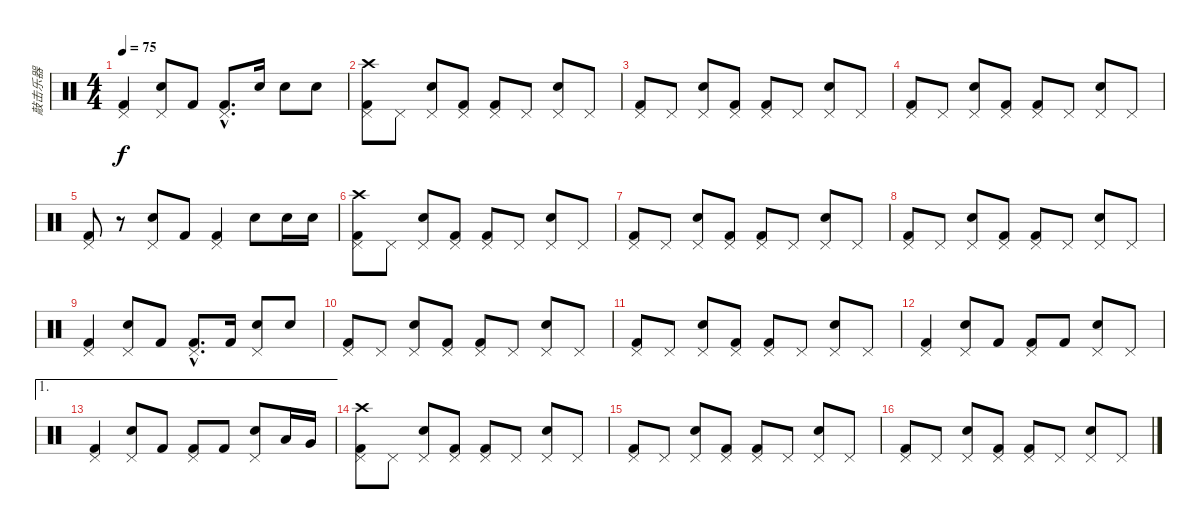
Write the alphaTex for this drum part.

\track ("敲击乐器" "敲击乐器") {instrument percussion}
\staff {score}
\articulation defaults
\ts (4 4)
\tempo 75
\clef neutral
\ks c
("Pedal Hi-Hat (hit)" "Kick (hit) 2").4{dy f} ("Pedal Hi-Hat (hit)" "Metronome (bell)").8 "Kick (hit) 2".8 ("Pedal Hi-Hat (hit)"{hac} "Kick (hit) 2"{hac}).8{d} "Metronome (bell)".16 "Metronome (bell)".8 "Metronome (bell)".8 |
("Crash high (hit)" "Pedal Hi-Hat (hit)" "Kick (hit) 2").8 "Pedal Hi-Hat (hit)".8 ("Pedal Hi-Hat (hit)" "Metronome (bell)").8 ("Pedal Hi-Hat (hit)" "Kick (hit) 2").8 ("Pedal Hi-Hat (hit)" "Kick (hit) 2").8 "Pedal Hi-Hat (hit)".8 ("Pedal Hi-Hat (hit)" "Metronome (bell)").8 "Pedal Hi-Hat (hit)".8 |
("Pedal Hi-Hat (hit)" "Kick (hit) 2").8 "Pedal Hi-Hat (hit)".8 ("Pedal Hi-Hat (hit)" "Metronome (bell)").8 ("Pedal Hi-Hat (hit)" "Kick (hit) 2").8 ("Pedal Hi-Hat (hit)" "Kick (hit) 2").8 "Pedal Hi-Hat (hit)".8 ("Pedal Hi-Hat (hit)" "Metronome (bell)").8 "Pedal Hi-Hat (hit)".8 |
("Pedal Hi-Hat (hit)" "Kick (hit) 2").8 "Pedal Hi-Hat (hit)".8 ("Pedal Hi-Hat (hit)" "Metronome (bell)").8 ("Pedal Hi-Hat (hit)" "Kick (hit) 2").8 ("Pedal Hi-Hat (hit)" "Kick (hit) 2").8 "Pedal Hi-Hat (hit)".8 ("Pedal Hi-Hat (hit)" "Metronome (bell)").8 "Pedal Hi-Hat (hit)".8 |
("Pedal Hi-Hat (hit)" "Kick (hit) 2").8 r.8 ("Pedal Hi-Hat (hit)" "Metronome (bell)").8 "Kick (hit) 2".8 ("Pedal Hi-Hat (hit)" "Kick (hit) 2").4 "Metronome (bell)".8 "Metronome (bell)".16 "Metronome (bell)".16 |
("Crash high (hit)" "Pedal Hi-Hat (hit)" "Kick (hit) 2").8 "Pedal Hi-Hat (hit)".8 ("Pedal Hi-Hat (hit)" "Metronome (bell)").8 ("Pedal Hi-Hat (hit)" "Kick (hit) 2").8 ("Pedal Hi-Hat (hit)" "Kick (hit) 2").8 "Pedal Hi-Hat (hit)".8 ("Pedal Hi-Hat (hit)" "Metronome (bell)").8 "Pedal Hi-Hat (hit)".8 |
("Pedal Hi-Hat (hit)" "Kick (hit) 2").8 "Pedal Hi-Hat (hit)".8 ("Pedal Hi-Hat (hit)" "Metronome (bell)").8 ("Pedal Hi-Hat (hit)" "Kick (hit) 2").8 ("Pedal Hi-Hat (hit)" "Kick (hit) 2").8 "Pedal Hi-Hat (hit)".8 ("Pedal Hi-Hat (hit)" "Metronome (bell)").8 "Pedal Hi-Hat (hit)".8 |
("Pedal Hi-Hat (hit)" "Kick (hit) 2").8 "Pedal Hi-Hat (hit)".8 ("Pedal Hi-Hat (hit)" "Metronome (bell)").8 ("Pedal Hi-Hat (hit)" "Kick (hit) 2").8 ("Pedal Hi-Hat (hit)" "Kick (hit) 2").8 "Pedal Hi-Hat (hit)".8 ("Pedal Hi-Hat (hit)" "Metronome (bell)").8 "Pedal Hi-Hat (hit)".8 |
("Pedal Hi-Hat (hit)" "Kick (hit) 2").4 ("Pedal Hi-Hat (hit)" "Metronome (bell)").8 "Kick (hit) 2".8 ("Pedal Hi-Hat (hit)"{hac} "Kick (hit) 2"{hac}).8{d} "Kick (hit) 2".16 ("Pedal Hi-Hat (hit)" "Metronome (bell)").8 "Metronome (bell)".8 |
("Pedal Hi-Hat (hit)" "Kick (hit) 2").8 "Pedal Hi-Hat (hit)".8 ("Pedal Hi-Hat (hit)" "Metronome (bell)").8 ("Pedal Hi-Hat (hit)" "Kick (hit) 2").8 ("Pedal Hi-Hat (hit)" "Kick (hit) 2").8 "Pedal Hi-Hat (hit)".8 ("Pedal Hi-Hat (hit)" "Metronome (bell)").8 "Pedal Hi-Hat (hit)".8 |
("Pedal Hi-Hat (hit)" "Kick (hit) 2").8 "Pedal Hi-Hat (hit)".8 ("Pedal Hi-Hat (hit)" "Metronome (bell)").8 ("Pedal Hi-Hat (hit)" "Kick (hit) 2").8 ("Pedal Hi-Hat (hit)" "Kick (hit) 2").8 "Pedal Hi-Hat (hit)".8 ("Pedal Hi-Hat (hit)" "Metronome (bell)").8 "Pedal Hi-Hat (hit)".8 |
("Pedal Hi-Hat (hit)" "Kick (hit) 2").4 ("Pedal Hi-Hat (hit)" "Metronome (bell)").8 "Kick (hit) 2".8 ("Pedal Hi-Hat (hit)" "Kick (hit) 2").8 "Kick (hit) 2".8 ("Pedal Hi-Hat (hit)" "Metronome (bell)").8 "Pedal Hi-Hat (hit)".8 |
\ae 1
("Pedal Hi-Hat (hit)" "Kick (hit) 2").4 ("Pedal Hi-Hat (hit)" "Metronome (bell)").8 "Kick (hit) 2".8 ("Pedal Hi-Hat (hit)" "Kick (hit) 2").8 "Kick (hit) 2".8 ("Pedal Hi-Hat (hit)" "Metronome (bell)").8 "Low Tom (hit)".16 "Very Low Tom (hit)".16 |
("Crash high (hit)" "Pedal Hi-Hat (hit)" "Kick (hit) 2").8 "Pedal Hi-Hat (hit)".8 ("Pedal Hi-Hat (hit)" "Metronome (bell)").8 ("Pedal Hi-Hat (hit)" "Kick (hit) 2").8 ("Pedal Hi-Hat (hit)" "Kick (hit) 2").8 "Pedal Hi-Hat (hit)".8 ("Pedal Hi-Hat (hit)" "Metronome (bell)").8 "Pedal Hi-Hat (hit)".8 |
("Pedal Hi-Hat (hit)" "Kick (hit) 2").8 "Pedal Hi-Hat (hit)".8 ("Pedal Hi-Hat (hit)" "Metronome (bell)").8 ("Pedal Hi-Hat (hit)" "Kick (hit) 2").8 ("Pedal Hi-Hat (hit)" "Kick (hit) 2").8 "Pedal Hi-Hat (hit)".8 ("Pedal Hi-Hat (hit)" "Metronome (bell)").8 "Pedal Hi-Hat (hit)".8 |
("Pedal Hi-Hat (hit)" "Kick (hit) 2").8 "Pedal Hi-Hat (hit)".8 ("Pedal Hi-Hat (hit)" "Metronome (bell)").8 ("Pedal Hi-Hat (hit)" "Kick (hit) 2").8 ("Pedal Hi-Hat (hit)" "Kick (hit) 2").8 "Pedal Hi-Hat (hit)".8 ("Pedal Hi-Hat (hit)" "Metronome (bell)").8 "Pedal Hi-Hat (hit)".8
